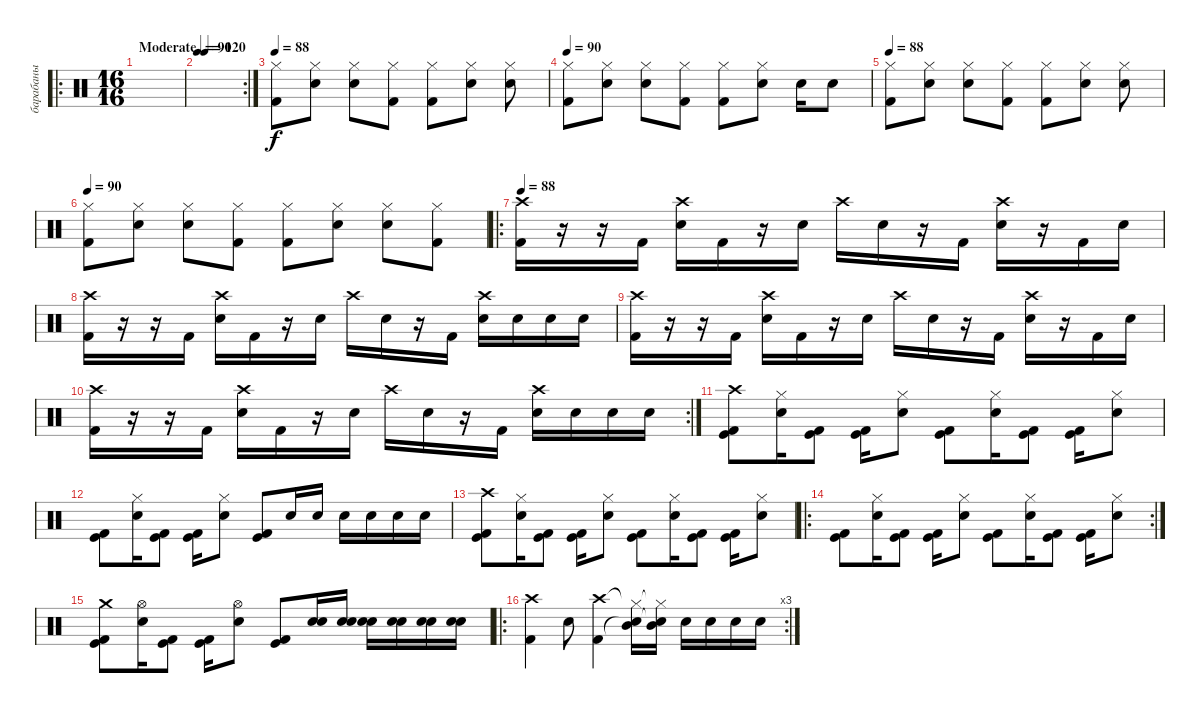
\track ("барабаны" "барабаны") {instrument percussion}
\staff {score}
\articulation defaults
\ro
\ts (16 16)
\tempo (120 "Moderate")
\tempo 88
\tempo (120 "Moderate")
\clef neutral
\ks c
|
\rc 2
\tempo 90
|
\tempo 88
("Hi-Hat (closed)" "Kick (hit) 2").8{volume 11} ("Hi-Hat (closed)" "Electric Snare (hit)").8 ("Hi-Hat (closed)" "Electric Snare (hit)").8 ("Hi-Hat (closed)" "Kick (hit) 2").8 ("Hi-Hat (closed)" "Kick (hit) 2").8 ("Hi-Hat (closed)" "Electric Snare (hit)").8 ("Hi-Hat (closed)" "Electric Snare (hit)").8 |
\tempo 90
("Hi-Hat (closed)" "Kick (hit) 2").8 ("Hi-Hat (closed)" "Electric Snare (hit)").8 ("Hi-Hat (closed)" "Electric Snare (hit)").8 ("Hi-Hat (closed)" "Kick (hit) 2").8 ("Hi-Hat (closed)" "Kick (hit) 2").8 ("Hi-Hat (closed)" "Electric Snare (hit)").8 "Electric Snare (hit)".16 "Electric Snare (hit)".8 |
\tempo 88
("Hi-Hat (closed)" "Kick (hit) 2").8 ("Hi-Hat (closed)" "Electric Snare (hit)").8 ("Hi-Hat (closed)" "Electric Snare (hit)").8 ("Hi-Hat (closed)" "Kick (hit) 2").8 ("Hi-Hat (closed)" "Kick (hit) 2").8 ("Hi-Hat (closed)" "Electric Snare (hit)").8 ("Hi-Hat (closed)" "Electric Snare (hit)").8 |
\tempo 90
("Hi-Hat (closed)" "Kick (hit) 2").8 ("Hi-Hat (closed)" "Electric Snare (hit)").8 ("Hi-Hat (closed)" "Electric Snare (hit)").8 ("Hi-Hat (closed)" "Kick (hit) 2").8 ("Hi-Hat (closed)" "Kick (hit) 2").8 ("Hi-Hat (closed)" "Electric Snare (hit)").8 ("Hi-Hat (closed)" "Electric Snare (hit)").8 ("Hi-Hat (closed)" "Kick (hit) 2").8 |
\ro
\tempo 88
("Crash high (hit)" "Kick (hit) 2").16{volume 16} r.16 r.16 "Kick (hit) 2".16 ("Crash high (hit)" "Electric Snare (hit)").16 "Kick (hit) 2".16 r.16 "Electric Snare (hit)".16 "Crash high (hit)".16 "Electric Snare (hit)".16 r.16 "Kick (hit) 2".16 ("Crash high (hit)" "Electric Snare (hit)").16 r.16 "Kick (hit) 2".16 "Electric Snare (hit)".16 |
("Crash high (hit)" "Kick (hit) 2").16 r.16 r.16 "Kick (hit) 2".16 ("Crash high (hit)" "Electric Snare (hit)").16 "Kick (hit) 2".16 r.16 "Electric Snare (hit)".16 "Crash high (hit)".16 "Electric Snare (hit)".16 r.16 "Kick (hit) 2".16 ("Crash high (hit)" "Electric Snare (hit)").16 "Electric Snare (hit)".16 "Electric Snare (hit)".16 "Electric Snare (hit)".16 |
("Crash high (hit)" "Kick (hit) 2").16 r.16 r.16 "Kick (hit) 2".16 ("Crash high (hit)" "Electric Snare (hit)").16 "Kick (hit) 2".16 r.16 "Electric Snare (hit)".16 "Crash high (hit)".16 "Electric Snare (hit)".16 r.16 "Kick (hit) 2".16 ("Crash high (hit)" "Electric Snare (hit)").16 r.16 "Kick (hit) 2".16 "Electric Snare (hit)".16 |
\rc 2
("Crash high (hit)" "Kick (hit) 2").16 r.16 r.16 "Kick (hit) 2".16 ("Crash high (hit)" "Electric Snare (hit)").16 "Kick (hit) 2".16 r.16 "Electric Snare (hit)".16 "Crash high (hit)".16 "Electric Snare (hit)".16 r.16 "Kick (hit) 2".16 ("Crash high (hit)" "Electric Snare (hit)").16 "Electric Snare (hit)".16 "Electric Snare (hit)".16 "Electric Snare (hit)".16 |
("Crash high (hit)" "Kick (hit) 2" "Kick (hit)").8 ("Hi-Hat (closed)" "Electric Snare (hit)").16 ("Kick (hit)" "Kick (hit) 2").8 ("Kick (hit)" "Kick (hit) 2").16 ("Hi-Hat (closed)" "Electric Snare (hit)").8 ("Kick (hit) 2" "Kick (hit)").8 ("Hi-Hat (closed)" "Electric Snare (hit)").16 ("Kick (hit)" "Kick (hit) 2").8 ("Kick (hit)" "Kick (hit) 2").16 ("Hi-Hat (closed)" "Electric Snare (hit)").8 |
("Kick (hit) 2" "Kick (hit)").8 ("Hi-Hat (closed)" "Electric Snare (hit)").16 ("Kick (hit)" "Kick (hit) 2").8 ("Kick (hit)" "Kick (hit) 2").16 ("Hi-Hat (closed)" "Electric Snare (hit)").8 ("Kick (hit) 2" "Kick (hit)").8 "Electric Snare (hit)".16 "Electric Snare (hit)".16 "Electric Snare (hit)".16 "Electric Snare (hit)".16 "Electric Snare (hit)".16 "Electric Snare (hit)".16 |
("Crash high (hit)" "Kick (hit) 2" "Kick (hit)").8 ("Hi-Hat (closed)" "Electric Snare (hit)").16 ("Kick (hit)" "Kick (hit) 2").8 ("Kick (hit)" "Kick (hit) 2").16 ("Hi-Hat (closed)" "Electric Snare (hit)").8 ("Kick (hit) 2" "Kick (hit)").8 ("Hi-Hat (closed)" "Electric Snare (hit)").16 ("Kick (hit)" "Kick (hit) 2").8 ("Kick (hit)" "Kick (hit) 2").16 ("Hi-Hat (closed)" "Electric Snare (hit)").8 |
\ro
\rc 2
("Kick (hit) 2" "Kick (hit)").8 ("Hi-Hat (closed)" "Electric Snare (hit)").16 ("Kick (hit)" "Kick (hit) 2").8 ("Kick (hit)" "Kick (hit) 2").16 ("Hi-Hat (closed)" "Electric Snare (hit)").8 ("Kick (hit) 2" "Kick (hit)").8 ("Hi-Hat (closed)" "Electric Snare (hit)").16 ("Kick (hit)" "Kick (hit) 2").8 ("Kick (hit)" "Kick (hit) 2").16 ("Hi-Hat (closed)" "Electric Snare (hit)").8 |
("Crash medium (hit)" "Kick (hit) 2" "Kick (hit)").8 ("Hi-Hat (open)" "Electric Snare (hit)").16 ("Kick (hit)" "Kick (hit) 2").8 ("Kick (hit)" "Kick (hit) 2").16 ("Hi-Hat (open)" "Electric Snare (hit)").8 ("Kick (hit) 2" "Kick (hit)").8 ("Snare (hit) 2" "Electric Snare (hit)").16 ("Snare (hit) 2" "Electric Snare (hit)").16 ("Snare (hit) 2" "Electric Snare (hit)").16 ("Snare (hit) 2" "Electric Snare (hit)").16 ("Snare (hit) 2" "Electric Snare (hit)").16 ("Snare (hit) 2" "Electric Snare (hit)").16 |
\ro
\rc 3
("Crash high (hit)" "Kick (hit) 2").4 "Electric Snare (hit)".8 ("Crash high (hit)" "Kick (hit) 2").4 ("Hi-Hat (closed)"{t} "Snare (hit)"{t} "Mid Tom (hit)").16 ("Hi-Hat (closed)"{t} "Snare (hit)"{t} "Mid Tom (hit)").16 "Electric Snare (hit)".16 "Electric Snare (hit)".16 "Electric Snare (hit)".16 "Electric Snare (hit)".16
